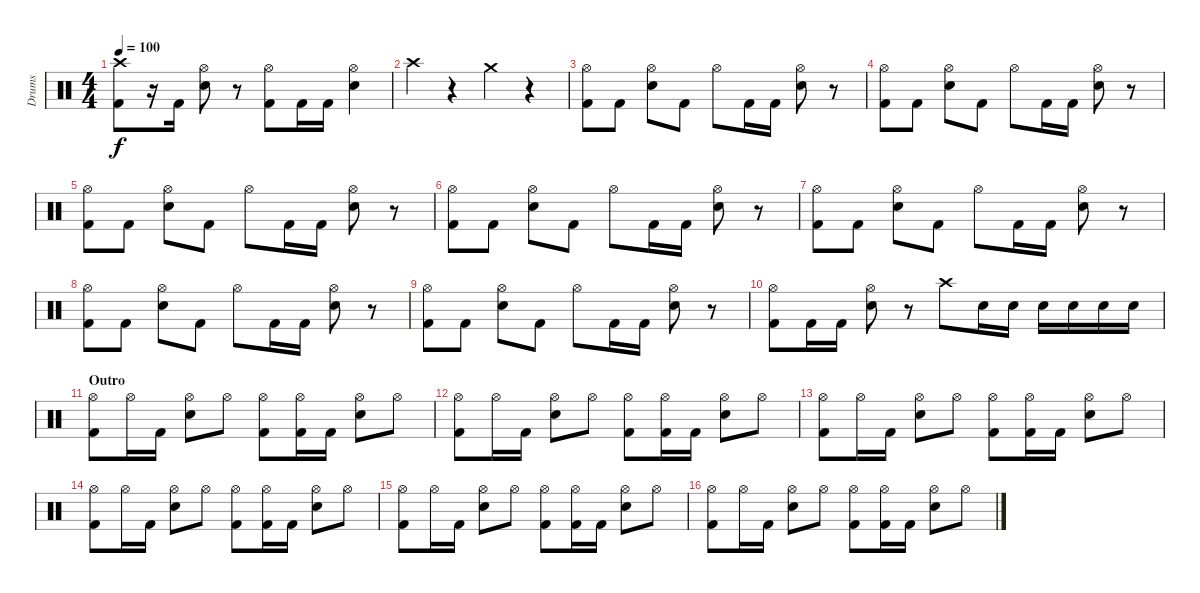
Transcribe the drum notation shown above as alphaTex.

\track ("Drums" "Drums") {instrument percussion}
\staff {score}
\articulation defaults
\ts (4 4)
\tempo 100
\clef neutral
\ks c
("Crash high (hit)" "Kick (hit) 2").8{dy f} r.16 "Kick (hit) 2".16 ("Hi-Hat (open)" "Snare (hit) 2").8 r.8 ("Hi-Hat (open)" "Kick (hit) 2").8 "Kick (hit) 2".16 "Kick (hit) 2".16 ("Hi-Hat (open)" "Snare (hit) 2").4 |
"Crash high (hit)".4 r.4 "Crash medium (hit)".4 r.4 |
("Hi-Hat (open)" "Kick (hit) 2").8 "Kick (hit) 2".8 ("Hi-Hat (open)" "Snare (hit) 2").8 "Kick (hit) 2".8 "Hi-Hat (open)".8 "Kick (hit) 2".16 "Kick (hit) 2".16 ("Hi-Hat (open)" "Snare (hit) 2").8 r.8 |
("Hi-Hat (open)" "Kick (hit) 2").8 "Kick (hit) 2".8 ("Hi-Hat (open)" "Snare (hit) 2").8 "Kick (hit) 2".8 "Hi-Hat (open)".8 "Kick (hit) 2".16 "Kick (hit) 2".16 ("Hi-Hat (open)" "Snare (hit) 2").8 r.8 |
("Hi-Hat (open)" "Kick (hit) 2").8 "Kick (hit) 2".8 ("Hi-Hat (open)" "Snare (hit) 2").8 "Kick (hit) 2".8 "Hi-Hat (open)".8 "Kick (hit) 2".16 "Kick (hit) 2".16 ("Hi-Hat (open)" "Snare (hit) 2").8 r.8 |
("Hi-Hat (open)" "Kick (hit) 2").8 "Kick (hit) 2".8 ("Hi-Hat (open)" "Snare (hit) 2").8 "Kick (hit) 2".8 "Hi-Hat (open)".8 "Kick (hit) 2".16 "Kick (hit) 2".16 ("Hi-Hat (open)" "Snare (hit) 2").8 r.8 |
("Hi-Hat (open)" "Kick (hit) 2").8 "Kick (hit) 2".8 ("Hi-Hat (open)" "Snare (hit) 2").8 "Kick (hit) 2".8 "Hi-Hat (open)".8 "Kick (hit) 2".16 "Kick (hit) 2".16 ("Hi-Hat (open)" "Snare (hit) 2").8 r.8 |
("Hi-Hat (open)" "Kick (hit) 2").8 "Kick (hit) 2".8 ("Hi-Hat (open)" "Snare (hit) 2").8 "Kick (hit) 2".8 "Hi-Hat (open)".8 "Kick (hit) 2".16 "Kick (hit) 2".16 ("Hi-Hat (open)" "Snare (hit) 2").8 r.8 |
("Hi-Hat (open)" "Kick (hit) 2").8 "Kick (hit) 2".8 ("Hi-Hat (open)" "Snare (hit) 2").8 "Kick (hit) 2".8 "Hi-Hat (open)".8 "Kick (hit) 2".16 "Kick (hit) 2".16 ("Hi-Hat (open)" "Snare (hit) 2").8 r.8 |
("Hi-Hat (open)" "Kick (hit) 2").8 "Kick (hit) 2".16 "Kick (hit) 2".16 ("Hi-Hat (open)" "Snare (hit) 2").8 r.8 "Crash high (hit)".8 "Snare (hit) 2".16 "Snare (hit) 2".16 "Snare (hit) 2".16 "Snare (hit) 2".16 "Snare (hit) 2".16 "Snare (hit) 2".16 |
\section ("" "Outro")
("Hi-Hat (open)" "Kick (hit) 2").8 "Hi-Hat (open)".16 "Kick (hit) 2".16 ("Hi-Hat (open)" "Snare (hit) 2").8 "Hi-Hat (open)".8 ("Hi-Hat (open)" "Kick (hit) 2").8 ("Hi-Hat (open)" "Kick (hit) 2").16 "Kick (hit) 2".16 ("Hi-Hat (open)" "Snare (hit) 2").8 "Hi-Hat (open)".8 |
("Hi-Hat (open)" "Kick (hit) 2").8 "Hi-Hat (open)".16 "Kick (hit) 2".16 ("Hi-Hat (open)" "Snare (hit) 2").8 "Hi-Hat (open)".8 ("Hi-Hat (open)" "Kick (hit) 2").8 ("Hi-Hat (open)" "Kick (hit) 2").16 "Kick (hit) 2".16 ("Hi-Hat (open)" "Snare (hit) 2").8 "Hi-Hat (open)".8 |
("Hi-Hat (open)" "Kick (hit) 2").8 "Hi-Hat (open)".16 "Kick (hit) 2".16 ("Hi-Hat (open)" "Snare (hit) 2").8 "Hi-Hat (open)".8 ("Hi-Hat (open)" "Kick (hit) 2").8 ("Hi-Hat (open)" "Kick (hit) 2").16 "Kick (hit) 2".16 ("Hi-Hat (open)" "Snare (hit) 2").8 "Hi-Hat (open)".8 |
("Hi-Hat (open)" "Kick (hit) 2").8 "Hi-Hat (open)".16 "Kick (hit) 2".16 ("Hi-Hat (open)" "Snare (hit) 2").8 "Hi-Hat (open)".8 ("Hi-Hat (open)" "Kick (hit) 2").8 ("Hi-Hat (open)" "Kick (hit) 2").16 "Kick (hit) 2".16 ("Hi-Hat (open)" "Snare (hit) 2").8 "Hi-Hat (open)".8 |
("Hi-Hat (open)" "Kick (hit) 2").8 "Hi-Hat (open)".16 "Kick (hit) 2".16 ("Hi-Hat (open)" "Snare (hit) 2").8 "Hi-Hat (open)".8 ("Hi-Hat (open)" "Kick (hit) 2").8 ("Hi-Hat (open)" "Kick (hit) 2").16 "Kick (hit) 2".16 ("Hi-Hat (open)" "Snare (hit) 2").8 "Hi-Hat (open)".8 |
("Hi-Hat (open)" "Kick (hit) 2").8 "Hi-Hat (open)".16 "Kick (hit) 2".16 ("Hi-Hat (open)" "Snare (hit) 2").8 "Hi-Hat (open)".8 ("Hi-Hat (open)" "Kick (hit) 2").8 ("Hi-Hat (open)" "Kick (hit) 2").16 "Kick (hit) 2".16 ("Hi-Hat (open)" "Snare (hit) 2").8 "Hi-Hat (open)".8
